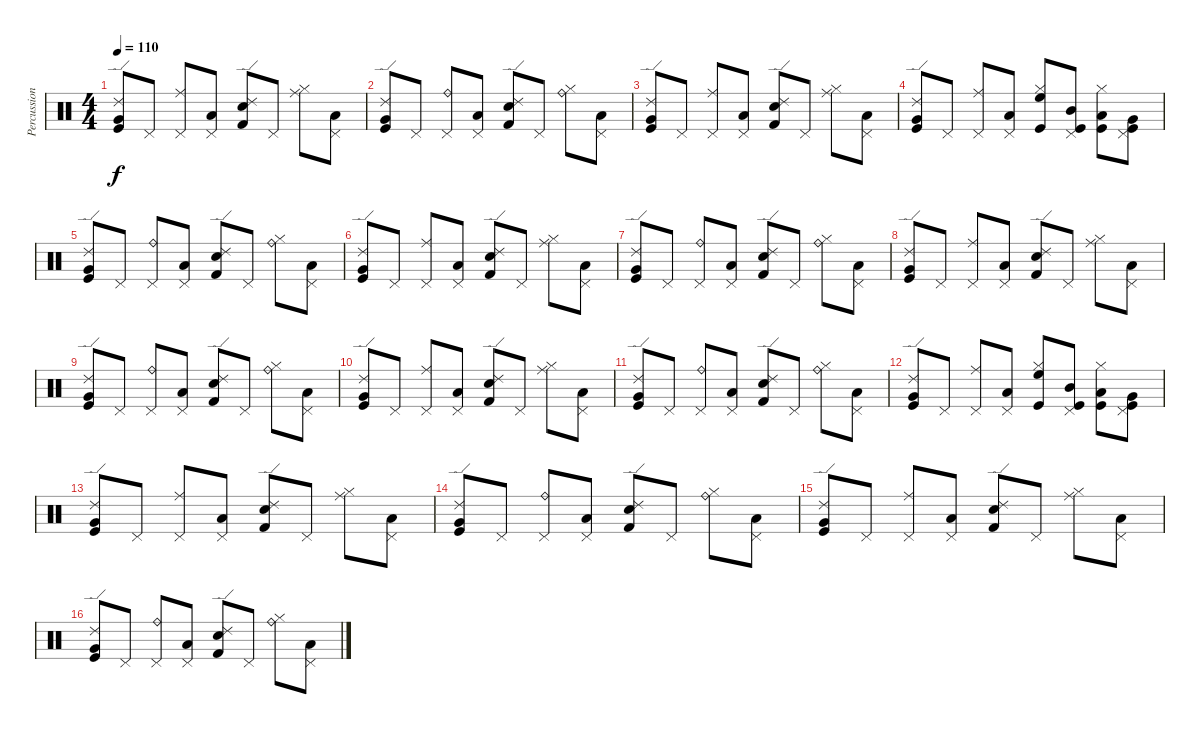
\track ("Percussions" "Percussion") {instrument percussion}
\staff {score}
\articulation defaults
\ts (4 4)
\tempo 110
\clef neutral
\ks c
("Ride (edge) 2" "Very Low Tom (hit)" "Kick (hit)").8{dy f} "Pedal Hi-Hat (hit)".8 ("Ride (middle)" "Pedal Hi-Hat (hit)").8 ("Pedal Hi-Hat (hit)" "Low Tom (hit)").8 ("Ride (edge) 2" "Kick (hit) 2" "Snare (hit) 2").8 "Pedal Hi-Hat (hit)".8 ("Hi-Hat (closed)" "Ride (middle)").8 ("Pedal Hi-Hat (hit)" "Low Tom (hit)").8 |
("Ride (edge) 2" "Very Low Tom (hit)" "Kick (hit)").8 "Pedal Hi-Hat (hit)".8 ("Ride (bell)" "Pedal Hi-Hat (hit)").8 ("Pedal Hi-Hat (hit)" "Low Tom (hit)").8 ("Ride (edge) 2" "Kick (hit) 2" "Snare (hit) 2").8 "Pedal Hi-Hat (hit)".8 ("Hi-Hat (closed)" "Ride (bell)").8 ("Pedal Hi-Hat (hit)" "Low Tom (hit)").8 |
("Ride (edge) 2" "Very Low Tom (hit)" "Kick (hit)").8 "Pedal Hi-Hat (hit)".8 ("Ride (middle)" "Pedal Hi-Hat (hit)").8 ("Pedal Hi-Hat (hit)" "Low Tom (hit)").8 ("Ride (edge) 2" "Kick (hit) 2" "Snare (hit) 2").8 "Pedal Hi-Hat (hit)".8 ("Hi-Hat (closed)" "Ride (middle)").8 ("Pedal Hi-Hat (hit)" "Low Tom (hit)").8 |
("Ride (edge) 2" "Very Low Tom (hit)" "Kick (hit)").8 "Pedal Hi-Hat (hit)".8 ("Ride (middle)" "Pedal Hi-Hat (hit)").8 ("Pedal Hi-Hat (hit)" "Low Tom (hit)").8 ("Hi-Hat (closed)" "Kick (hit)" "High Floor Tom (hit)").8 ("Pedal Hi-Hat (hit)" "Mid Tom (hit)" "Kick (hit)").8 ("Hi-Hat (closed)" "Low Tom (hit)" "Kick (hit)").8 ("Kick (hit)" "Pedal Hi-Hat (hit)" "Very Low Tom (hit)").8 |
("Ride (edge) 2" "Very Low Tom (hit)" "Kick (hit)").8 "Pedal Hi-Hat (hit)".8 ("Ride (bell)" "Pedal Hi-Hat (hit)").8 ("Pedal Hi-Hat (hit)" "Low Tom (hit)").8 ("Ride (edge) 2" "Kick (hit) 2" "Snare (hit) 2").8 "Pedal Hi-Hat (hit)".8 ("Hi-Hat (closed)" "Ride (bell)").8 ("Pedal Hi-Hat (hit)" "Low Tom (hit)").8 |
("Ride (edge) 2" "Very Low Tom (hit)" "Kick (hit)").8 "Pedal Hi-Hat (hit)".8 ("Ride (middle)" "Pedal Hi-Hat (hit)").8 ("Pedal Hi-Hat (hit)" "Low Tom (hit)").8 ("Ride (edge) 2" "Kick (hit) 2" "Snare (hit) 2").8 "Pedal Hi-Hat (hit)".8 ("Hi-Hat (closed)" "Ride (middle)").8 ("Pedal Hi-Hat (hit)" "Low Tom (hit)").8 |
("Ride (edge) 2" "Very Low Tom (hit)" "Kick (hit)").8 "Pedal Hi-Hat (hit)".8 ("Ride (bell)" "Pedal Hi-Hat (hit)").8 ("Pedal Hi-Hat (hit)" "Low Tom (hit)").8 ("Ride (edge) 2" "Kick (hit) 2" "Snare (hit) 2").8 "Pedal Hi-Hat (hit)".8 ("Hi-Hat (closed)" "Ride (bell)").8 ("Pedal Hi-Hat (hit)" "Low Tom (hit)").8 |
("Ride (edge) 2" "Very Low Tom (hit)" "Kick (hit)").8 "Pedal Hi-Hat (hit)".8 ("Ride (middle)" "Pedal Hi-Hat (hit)").8 ("Pedal Hi-Hat (hit)" "Low Tom (hit)").8 ("Ride (edge) 2" "Kick (hit) 2" "Snare (hit) 2").8 "Pedal Hi-Hat (hit)".8 ("Hi-Hat (closed)" "Ride (middle)").8 ("Pedal Hi-Hat (hit)" "Low Tom (hit)").8 |
("Ride (edge) 2" "Very Low Tom (hit)" "Kick (hit)").8 "Pedal Hi-Hat (hit)".8 ("Ride (bell)" "Pedal Hi-Hat (hit)").8 ("Pedal Hi-Hat (hit)" "Low Tom (hit)").8 ("Ride (edge) 2" "Kick (hit) 2" "Snare (hit) 2").8 "Pedal Hi-Hat (hit)".8 ("Hi-Hat (closed)" "Ride (bell)").8 ("Pedal Hi-Hat (hit)" "Low Tom (hit)").8 |
("Ride (edge) 2" "Very Low Tom (hit)" "Kick (hit)").8 "Pedal Hi-Hat (hit)".8 ("Ride (middle)" "Pedal Hi-Hat (hit)").8 ("Pedal Hi-Hat (hit)" "Low Tom (hit)").8 ("Ride (edge) 2" "Kick (hit) 2" "Snare (hit) 2").8 "Pedal Hi-Hat (hit)".8 ("Hi-Hat (closed)" "Ride (middle)").8 ("Pedal Hi-Hat (hit)" "Low Tom (hit)").8 |
("Ride (edge) 2" "Very Low Tom (hit)" "Kick (hit)").8 "Pedal Hi-Hat (hit)".8 ("Ride (bell)" "Pedal Hi-Hat (hit)").8 ("Pedal Hi-Hat (hit)" "Low Tom (hit)").8 ("Ride (edge) 2" "Kick (hit) 2" "Snare (hit) 2").8 "Pedal Hi-Hat (hit)".8 ("Hi-Hat (closed)" "Ride (bell)").8 ("Pedal Hi-Hat (hit)" "Low Tom (hit)").8 |
("Ride (edge) 2" "Very Low Tom (hit)" "Kick (hit)").8 "Pedal Hi-Hat (hit)".8 ("Ride (middle)" "Pedal Hi-Hat (hit)").8 ("Pedal Hi-Hat (hit)" "Low Tom (hit)").8 ("Hi-Hat (closed)" "Kick (hit)" "High Floor Tom (hit)").8 ("Pedal Hi-Hat (hit)" "Mid Tom (hit)" "Kick (hit)").8 ("Hi-Hat (closed)" "Low Tom (hit)" "Kick (hit)").8 ("Kick (hit)" "Pedal Hi-Hat (hit)" "Very Low Tom (hit)").8 |
("Ride (edge) 2" "Very Low Tom (hit)" "Kick (hit)").8 "Pedal Hi-Hat (hit)".8 ("Ride (middle)" "Pedal Hi-Hat (hit)").8 ("Pedal Hi-Hat (hit)" "Low Tom (hit)").8 ("Ride (edge) 2" "Kick (hit) 2" "Snare (hit) 2").8 "Pedal Hi-Hat (hit)".8 ("Hi-Hat (closed)" "Ride (middle)").8 ("Pedal Hi-Hat (hit)" "Low Tom (hit)").8 |
("Ride (edge) 2" "Very Low Tom (hit)" "Kick (hit)").8 "Pedal Hi-Hat (hit)".8 ("Ride (bell)" "Pedal Hi-Hat (hit)").8 ("Pedal Hi-Hat (hit)" "Low Tom (hit)").8 ("Ride (edge) 2" "Kick (hit) 2" "Snare (hit) 2").8 "Pedal Hi-Hat (hit)".8 ("Hi-Hat (closed)" "Ride (bell)").8 ("Pedal Hi-Hat (hit)" "Low Tom (hit)").8 |
("Ride (edge) 2" "Very Low Tom (hit)" "Kick (hit)").8 "Pedal Hi-Hat (hit)".8 ("Ride (middle)" "Pedal Hi-Hat (hit)").8 ("Pedal Hi-Hat (hit)" "Low Tom (hit)").8 ("Ride (edge) 2" "Kick (hit) 2" "Snare (hit) 2").8 "Pedal Hi-Hat (hit)".8 ("Hi-Hat (closed)" "Ride (middle)").8 ("Pedal Hi-Hat (hit)" "Low Tom (hit)").8 |
("Ride (edge) 2" "Very Low Tom (hit)" "Kick (hit)").8 "Pedal Hi-Hat (hit)".8 ("Ride (bell)" "Pedal Hi-Hat (hit)").8 ("Pedal Hi-Hat (hit)" "Low Tom (hit)").8 ("Ride (edge) 2" "Kick (hit) 2" "Snare (hit) 2").8 "Pedal Hi-Hat (hit)".8 ("Hi-Hat (closed)" "Ride (bell)").8 ("Pedal Hi-Hat (hit)" "Low Tom (hit)").8
